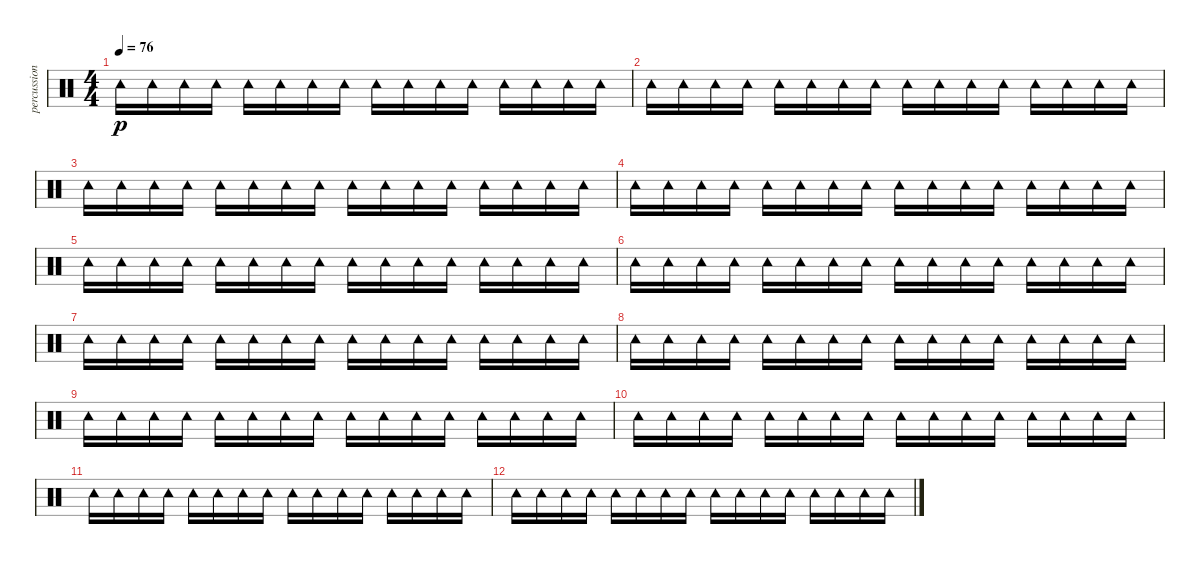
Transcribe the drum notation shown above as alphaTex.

\track ("percussion" "percussion") {instrument percussion}
\staff {score}
\articulation defaults
\ts (4 4)
\tempo 76
\clef neutral
\ks c "Tambourine (hit)".16{dy p} "Tambourine (hit)".16 "Tambourine (hit)".16 "Tambourine (hit)".16 "Tambourine (hit)".16 "Tambourine (hit)".16 "Tambourine (hit)".16 "Tambourine (hit)".16 "Tambourine (hit)".16 "Tambourine (hit)".16 "Tambourine (hit)".16 "Tambourine (hit)".16 "Tambourine (hit)".16 "Tambourine (hit)".16 "Tambourine (hit)".16 "Tambourine (hit)".16
|
"Tambourine (hit)".16 "Tambourine (hit)".16 "Tambourine (hit)".16 "Tambourine (hit)".16 "Tambourine (hit)".16 "Tambourine (hit)".16 "Tambourine (hit)".16 "Tambourine (hit)".16 "Tambourine (hit)".16 "Tambourine (hit)".16 "Tambourine (hit)".16 "Tambourine (hit)".16 "Tambourine (hit)".16 "Tambourine (hit)".16 "Tambourine (hit)".16 "Tambourine (hit)".16 |
"Tambourine (hit)".16 "Tambourine (hit)".16 "Tambourine (hit)".16 "Tambourine (hit)".16 "Tambourine (hit)".16 "Tambourine (hit)".16 "Tambourine (hit)".16 "Tambourine (hit)".16 "Tambourine (hit)".16 "Tambourine (hit)".16 "Tambourine (hit)".16 "Tambourine (hit)".16 "Tambourine (hit)".16 "Tambourine (hit)".16 "Tambourine (hit)".16 "Tambourine (hit)".16 |
"Tambourine (hit)".16 "Tambourine (hit)".16 "Tambourine (hit)".16 "Tambourine (hit)".16 "Tambourine (hit)".16 "Tambourine (hit)".16 "Tambourine (hit)".16 "Tambourine (hit)".16 "Tambourine (hit)".16 "Tambourine (hit)".16 "Tambourine (hit)".16 "Tambourine (hit)".16 "Tambourine (hit)".16 "Tambourine (hit)".16 "Tambourine (hit)".16 "Tambourine (hit)".16 |
"Tambourine (hit)".16 "Tambourine (hit)".16 "Tambourine (hit)".16 "Tambourine (hit)".16 "Tambourine (hit)".16 "Tambourine (hit)".16 "Tambourine (hit)".16 "Tambourine (hit)".16 "Tambourine (hit)".16 "Tambourine (hit)".16 "Tambourine (hit)".16 "Tambourine (hit)".16 "Tambourine (hit)".16 "Tambourine (hit)".16 "Tambourine (hit)".16 "Tambourine (hit)".16 |
"Tambourine (hit)".16 "Tambourine (hit)".16 "Tambourine (hit)".16 "Tambourine (hit)".16 "Tambourine (hit)".16 "Tambourine (hit)".16 "Tambourine (hit)".16 "Tambourine (hit)".16 "Tambourine (hit)".16 "Tambourine (hit)".16 "Tambourine (hit)".16 "Tambourine (hit)".16 "Tambourine (hit)".16 "Tambourine (hit)".16 "Tambourine (hit)".16 "Tambourine (hit)".16 |
"Tambourine (hit)".16 "Tambourine (hit)".16 "Tambourine (hit)".16 "Tambourine (hit)".16 "Tambourine (hit)".16 "Tambourine (hit)".16 "Tambourine (hit)".16 "Tambourine (hit)".16 "Tambourine (hit)".16 "Tambourine (hit)".16 "Tambourine (hit)".16 "Tambourine (hit)".16 "Tambourine (hit)".16 "Tambourine (hit)".16 "Tambourine (hit)".16 "Tambourine (hit)".16 |
"Tambourine (hit)".16 "Tambourine (hit)".16 "Tambourine (hit)".16 "Tambourine (hit)".16 "Tambourine (hit)".16 "Tambourine (hit)".16 "Tambourine (hit)".16 "Tambourine (hit)".16 "Tambourine (hit)".16 "Tambourine (hit)".16 "Tambourine (hit)".16 "Tambourine (hit)".16 "Tambourine (hit)".16 "Tambourine (hit)".16 "Tambourine (hit)".16 "Tambourine (hit)".16 |
"Tambourine (hit)".16 "Tambourine (hit)".16 "Tambourine (hit)".16 "Tambourine (hit)".16 "Tambourine (hit)".16 "Tambourine (hit)".16 "Tambourine (hit)".16 "Tambourine (hit)".16 "Tambourine (hit)".16 "Tambourine (hit)".16 "Tambourine (hit)".16 "Tambourine (hit)".16 "Tambourine (hit)".16 "Tambourine (hit)".16 "Tambourine (hit)".16 "Tambourine (hit)".16 |
"Tambourine (hit)".16 "Tambourine (hit)".16 "Tambourine (hit)".16 "Tambourine (hit)".16 "Tambourine (hit)".16 "Tambourine (hit)".16 "Tambourine (hit)".16 "Tambourine (hit)".16 "Tambourine (hit)".16 "Tambourine (hit)".16 "Tambourine (hit)".16 "Tambourine (hit)".16 "Tambourine (hit)".16 "Tambourine (hit)".16 "Tambourine (hit)".16 "Tambourine (hit)".16 |
"Tambourine (hit)".16 "Tambourine (hit)".16 "Tambourine (hit)".16 "Tambourine (hit)".16 "Tambourine (hit)".16 "Tambourine (hit)".16 "Tambourine (hit)".16 "Tambourine (hit)".16 "Tambourine (hit)".16 "Tambourine (hit)".16 "Tambourine (hit)".16 "Tambourine (hit)".16 "Tambourine (hit)".16 "Tambourine (hit)".16 "Tambourine (hit)".16 "Tambourine (hit)".16 |
"Tambourine (hit)".16 "Tambourine (hit)".16 "Tambourine (hit)".16 "Tambourine (hit)".16 "Tambourine (hit)".16 "Tambourine (hit)".16 "Tambourine (hit)".16 "Tambourine (hit)".16 "Tambourine (hit)".16 "Tambourine (hit)".16 "Tambourine (hit)".16 "Tambourine (hit)".16 "Tambourine (hit)".16 "Tambourine (hit)".16 "Tambourine (hit)".16 "Tambourine (hit)".16
